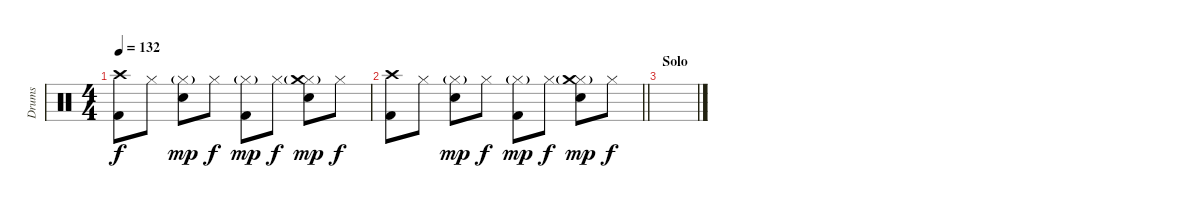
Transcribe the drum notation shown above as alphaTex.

\track ("Drums" "Drums") {instrument percussion}
\staff {score}
\articulation defaults
\ts (4 4)
\tempo 132
\clef neutral
\ks c
("Crash high (hit)" "Kick (hit) 2").8{dy f} "Hi-Hat (closed)".8 ("Hi-Hat (closed)"{g} "Snare (hit) 2").8{dy mp} "Hi-Hat (closed)".8{dy f} ("Hi-Hat (closed)"{g} "Kick (hit) 2").8{dy mp} "Hi-Hat (closed)".8{dy f} ("Hi-Hat (closed)"{g} "Crash medium (hit)" "Snare (hit) 2").8{dy mp} "Hi-Hat (closed)".8{dy f} |
\barLineRight lightlight
("Crash high (hit)" "Kick (hit) 2").8 "Hi-Hat (closed)".8 ("Hi-Hat (closed)"{g} "Snare (hit) 2").8{dy mp} "Hi-Hat (closed)".8{dy f} ("Hi-Hat (closed)"{g} "Kick (hit) 2").8{dy mp} "Hi-Hat (closed)".8{dy f} ("Hi-Hat (closed)"{g} "Crash medium (hit)" "Snare (hit) 2").8{dy mp} "Hi-Hat (closed)".8{dy f} |
\section ("" "Solo")
